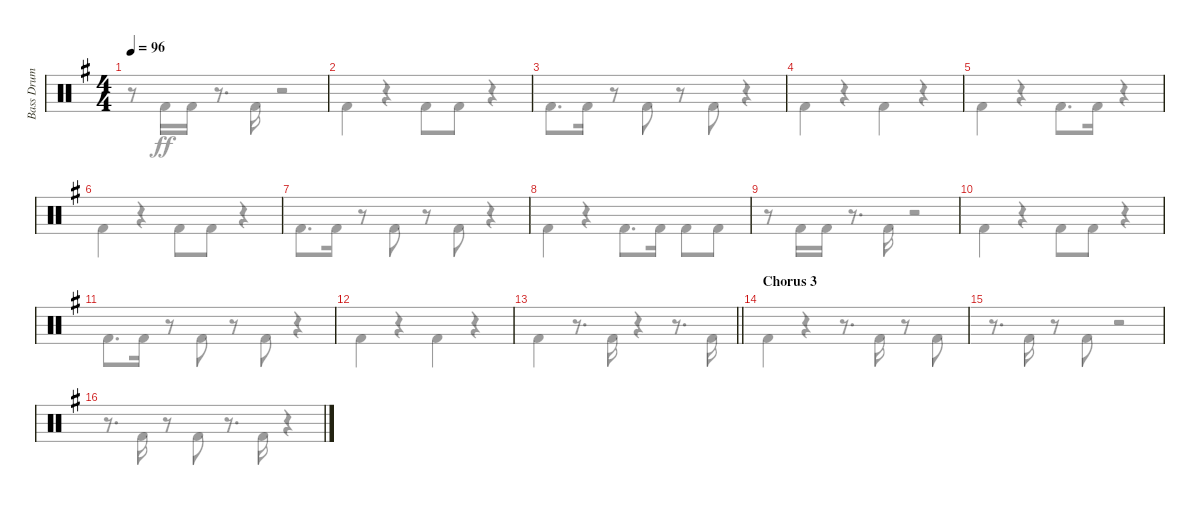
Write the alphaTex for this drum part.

\track ("Bass Drum" "Bass Drum") {instrument percussion}
\staff {score}
\articulation defaults
\voice
\ts (4 4)
\tempo 96
\clef neutral
\ks g
|
|
|
|
|
|
|
|
|
|
|
|
\barLineRight lightlight
|
\section ("" "Chorus 3")
|
|
\voice
\clef neutral
\ks g
r.8{dy ff} "Kick (hit) 2".16 "Kick (hit) 2".16 r.8{d} "Kick (hit) 2".16 r.2 |
"Kick (hit) 2".4 r.4 "Kick (hit) 2".8 "Kick (hit) 2".8 r.4 |
"Kick (hit) 2".8{d} "Kick (hit) 2".16 r.8 "Kick (hit) 2".8 r.8 "Kick (hit) 2".8 r.4 |
"Kick (hit) 2".4 r.4 "Kick (hit) 2".4 r.4 |
"Kick (hit) 2".4 r.4 "Kick (hit) 2".8{d} "Kick (hit) 2".16 r.4 |
"Kick (hit) 2".4 r.4 "Kick (hit) 2".8 "Kick (hit) 2".8 r.4 |
"Kick (hit) 2".8{d} "Kick (hit) 2".16 r.8 "Kick (hit) 2".8 r.8 "Kick (hit) 2".8 r.4 |
"Kick (hit) 2".4 r.4 "Kick (hit) 2".8{d} "Kick (hit) 2".16 "Kick (hit) 2".8 "Kick (hit) 2".8 |
r.8 "Kick (hit) 2".16 "Kick (hit) 2".16 r.8{d} "Kick (hit) 2".16 r.2 |
"Kick (hit) 2".4 r.4 "Kick (hit) 2".8 "Kick (hit) 2".8 r.4 |
"Kick (hit) 2".8{d} "Kick (hit) 2".16 r.8 "Kick (hit) 2".8 r.8 "Kick (hit) 2".8 r.4 |
"Kick (hit) 2".4 r.4 "Kick (hit) 2".4 r.4 |
\barLineRight lightlight "Kick (hit) 2".4
r.8{d} "Kick (hit) 2".16 r.4 r.8{d} "Kick (hit) 2".16 |
"Kick (hit) 2".4 r.4 r.8{d} "Kick (hit) 2".16 r.8 "Kick (hit) 2".8 |
r.8{d} "Kick (hit) 2".16 r.8 "Kick (hit) 2".8 r.2 |
r.8{d} "Kick (hit) 2".16 r.8 "Kick (hit) 2".8 r.8{d} "Kick (hit) 2".16 r.4
